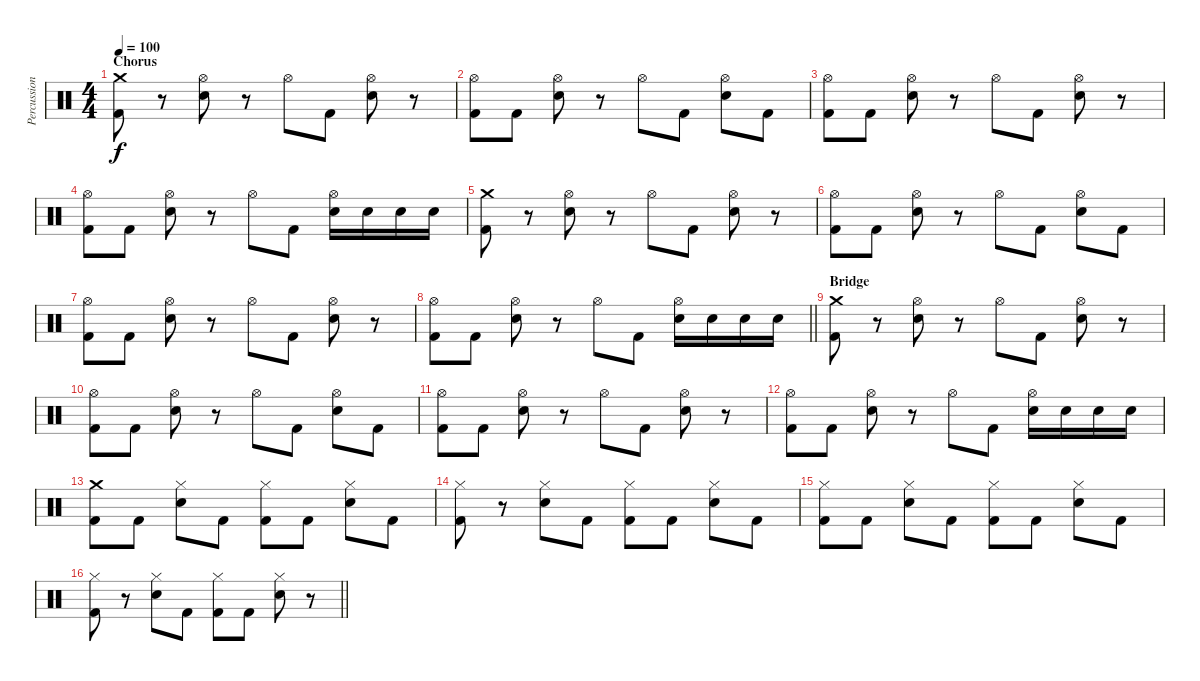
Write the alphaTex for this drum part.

\track ("Percussion" "Percussion") {instrument percussion}
\staff {score}
\articulation defaults
\ts (4 4)
\section ("" "Chorus")
\tempo 100
\clef neutral
\ks c
("Crash medium (hit)" "Kick (hit) 2").8{dy f} r.8 ("Hi-Hat (open)" "Snare (hit) 2").8 r.8 "Hi-Hat (open)".8 "Kick (hit) 2".8 ("Hi-Hat (open)" "Snare (hit) 2").8 r.8 |
("Hi-Hat (open)" "Kick (hit) 2").8 "Kick (hit) 2".8 ("Hi-Hat (open)" "Snare (hit) 2").8 r.8 "Hi-Hat (open)".8 "Kick (hit) 2".8 ("Hi-Hat (open)" "Snare (hit) 2").8 "Kick (hit) 2".8 |
("Hi-Hat (open)" "Kick (hit) 2").8 "Kick (hit) 2".8 ("Hi-Hat (open)" "Snare (hit) 2").8 r.8 "Hi-Hat (open)".8 "Kick (hit) 2".8 ("Hi-Hat (open)" "Snare (hit) 2").8 r.8 |
("Hi-Hat (open)" "Kick (hit) 2").8 "Kick (hit) 2".8 ("Hi-Hat (open)" "Snare (hit) 2").8 r.8 "Hi-Hat (open)".8 "Kick (hit) 2".8 ("Hi-Hat (open)" "Snare (hit) 2").16 "Snare (hit) 2".16 "Snare (hit) 2".16 "Snare (hit) 2".16 |
("Crash medium (hit)" "Kick (hit) 2").8 r.8 ("Hi-Hat (open)" "Snare (hit) 2").8 r.8 "Hi-Hat (open)".8 "Kick (hit) 2".8 ("Hi-Hat (open)" "Snare (hit) 2").8 r.8 |
("Hi-Hat (open)" "Kick (hit) 2").8 "Kick (hit) 2".8 ("Hi-Hat (open)" "Snare (hit) 2").8 r.8 "Hi-Hat (open)".8 "Kick (hit) 2".8 ("Hi-Hat (open)" "Snare (hit) 2").8 "Kick (hit) 2".8 |
("Hi-Hat (open)" "Kick (hit) 2").8 "Kick (hit) 2".8 ("Hi-Hat (open)" "Snare (hit) 2").8 r.8 "Hi-Hat (open)".8 "Kick (hit) 2".8 ("Hi-Hat (open)" "Snare (hit) 2").8 r.8 |
\barLineRight lightlight
("Hi-Hat (open)" "Kick (hit) 2").8 "Kick (hit) 2".8 ("Hi-Hat (open)" "Snare (hit) 2").8 r.8 "Hi-Hat (open)".8 "Kick (hit) 2".8 ("Hi-Hat (open)" "Snare (hit) 2").16 "Snare (hit) 2".16 "Snare (hit) 2".16 "Snare (hit) 2".16 |
\section ("" "Bridge")
("Crash medium (hit)" "Kick (hit) 2").8 r.8 ("Hi-Hat (open)" "Snare (hit) 2").8 r.8 "Hi-Hat (open)".8 "Kick (hit) 2".8 ("Hi-Hat (open)" "Snare (hit) 2").8 r.8 |
("Hi-Hat (open)" "Kick (hit) 2").8 "Kick (hit) 2".8 ("Hi-Hat (open)" "Snare (hit) 2").8 r.8 "Hi-Hat (open)".8 "Kick (hit) 2".8 ("Hi-Hat (open)" "Snare (hit) 2").8 "Kick (hit) 2".8 |
("Hi-Hat (open)" "Kick (hit) 2").8 "Kick (hit) 2".8 ("Hi-Hat (open)" "Snare (hit) 2").8 r.8 "Hi-Hat (open)".8 "Kick (hit) 2".8 ("Hi-Hat (open)" "Snare (hit) 2").8 r.8 |
("Hi-Hat (open)" "Kick (hit) 2").8 "Kick (hit) 2".8 ("Hi-Hat (open)" "Snare (hit) 2").8 r.8 "Hi-Hat (open)".8 "Kick (hit) 2".8 ("Hi-Hat (open)" "Snare (hit) 2").16 "Snare (hit) 2".16 "Snare (hit) 2".16 "Snare (hit) 2".16 |
("Crash medium (hit)" "Kick (hit) 2").8 "Kick (hit) 2".8 ("Hi-Hat (closed)" "Snare (hit) 2").8 "Kick (hit) 2".8 ("Hi-Hat (closed)" "Kick (hit) 2").8 "Kick (hit) 2".8 ("Hi-Hat (closed)" "Snare (hit) 2").8 "Kick (hit) 2".8 |
("Hi-Hat (closed)" "Kick (hit) 2").8 r.8 ("Hi-Hat (closed)" "Snare (hit) 2").8 "Kick (hit) 2".8 ("Hi-Hat (closed)" "Kick (hit) 2").8 "Kick (hit) 2".8 ("Hi-Hat (closed)" "Snare (hit) 2").8 "Kick (hit) 2".8 |
("Hi-Hat (closed)" "Kick (hit) 2").8 "Kick (hit) 2".8 ("Hi-Hat (closed)" "Snare (hit) 2").8 "Kick (hit) 2".8 ("Hi-Hat (closed)" "Kick (hit) 2").8 "Kick (hit) 2".8 ("Hi-Hat (closed)" "Snare (hit) 2").8 "Kick (hit) 2".8 |
\barLineRight lightlight
("Hi-Hat (closed)" "Kick (hit) 2").8 r.8 ("Hi-Hat (closed)" "Snare (hit) 2").8 "Kick (hit) 2".8 ("Hi-Hat (closed)" "Kick (hit) 2").8 "Kick (hit) 2".8 ("Hi-Hat (closed)" "Snare (hit) 2").8 r.8
